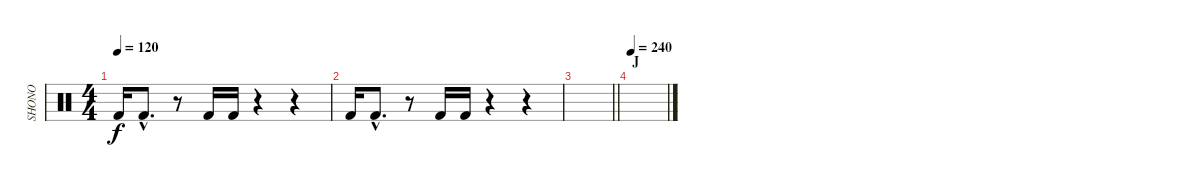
\track ("SHONO" "SHONO") {instrument percussion}
\staff {score}
\articulation defaults
\ts (4 4)
\tempo 120
\clef neutral
\ks c "Kick (hit) 2".16{dy f} "Kick (hit) 2"{hac}.8{d}
r.8 "Kick (hit) 2".16 "Kick (hit) 2".16 r.4 r.4 |
"Kick (hit) 2".16 "Kick (hit) 2"{hac}.8{d} r.8 "Kick (hit) 2".16 "Kick (hit) 2".16 r.4 r.4 |
\barLineRight lightlight
|
\section ("" "J")
\tempo 240
